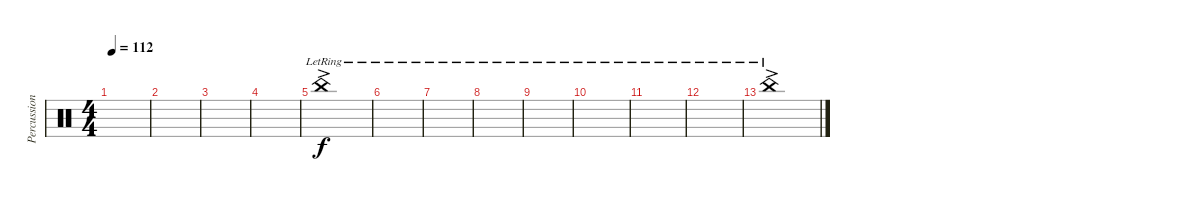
\track ("Percussion" "Percussion") {instrument percussion}
\staff {score}
\articulation defaults
\ts (4 4)
\tempo 112
\tempo 100
\tempo 112
\clef neutral
\ks c
|
|
|
|
"China (hit)"{ac lr}.1 |
|
|
|
|
|
|
|
"China (hit)"{ac lr}.1
